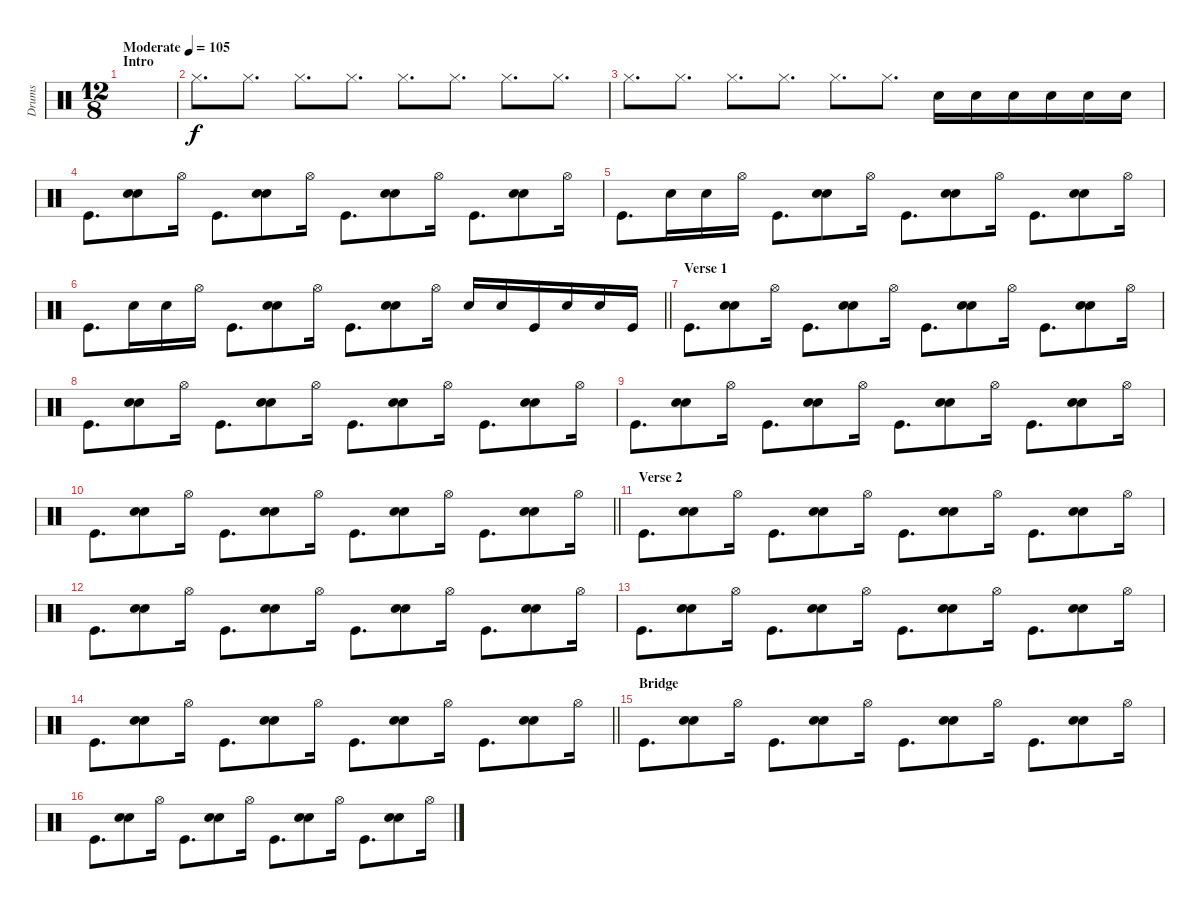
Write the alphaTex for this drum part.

\track ("Drums" "Drums") {instrument percussion}
\staff {score}
\articulation defaults
\ts (12 8)
\section ("" "Intro")
\tempo (105 "Moderate")
\clef neutral
\ks c
|
"Hi-Hat (closed)".8{d} "Hi-Hat (closed)".8{d} "Hi-Hat (closed)".8{d} "Hi-Hat (closed)".8{d} "Hi-Hat (closed)".8{d} "Hi-Hat (closed)".8{d} "Hi-Hat (closed)".8{d} "Hi-Hat (closed)".8{d} |
"Hi-Hat (closed)".8{d} "Hi-Hat (closed)".8{d} "Hi-Hat (closed)".8{d} "Hi-Hat (closed)".8{d} "Hi-Hat (closed)".8{d} "Hi-Hat (closed)".8{d} "Snare (hit) 2".16 "Snare (hit) 2".16 "Snare (hit) 2".16 "Snare (hit) 2".16 "Snare (hit) 2".16 "Snare (hit) 2".16 |
"Kick (hit)".8{d} ("Hand Clap (hit)" "Electric Snare (hit)").8 "Hi-Hat (open)".16 "Kick (hit)".8{d} ("Hand Clap (hit)" "Electric Snare (hit)").8 "Hi-Hat (open)".16 "Kick (hit)".8{d} ("Hand Clap (hit)" "Electric Snare (hit)").8 "Hi-Hat (open)".16 "Kick (hit)".8{d} ("Hand Clap (hit)" "Electric Snare (hit)").8 "Hi-Hat (open)".16 |
"Kick (hit)".8{d} "Electric Snare (hit)".16 "Electric Snare (hit)".16 "Hi-Hat (open)".16 "Kick (hit)".8{d} ("Hand Clap (hit)" "Electric Snare (hit)").8 "Hi-Hat (open)".16 "Kick (hit)".8{d} ("Hand Clap (hit)" "Electric Snare (hit)").8 "Hi-Hat (open)".16 "Kick (hit)".8{d} ("Hand Clap (hit)" "Electric Snare (hit)").8 "Hi-Hat (open)".16 |
\barLineRight lightlight "Kick (hit)".8{d} "Electric Snare (hit)".16 "Electric Snare (hit)".16 "Hi-Hat (open)".16 "Kick (hit)".8{d}
("Hand Clap (hit)" "Electric Snare (hit)").8 "Hi-Hat (open)".16 "Kick (hit)".8{d} ("Hand Clap (hit)" "Electric Snare (hit)").8 "Hi-Hat (open)".16 "Electric Snare (hit)".16 "Electric Snare (hit)".16 "Kick (hit)".16 "Electric Snare (hit)".16 "Electric Snare (hit)".16 "Kick (hit)".16 |
\section ("" "Verse 1")
"Kick (hit)".8{d} ("Hand Clap (hit)" "Electric Snare (hit)").8 "Hi-Hat (open)".16 "Kick (hit)".8{d} ("Hand Clap (hit)" "Electric Snare (hit)").8 "Hi-Hat (open)".16 "Kick (hit)".8{d} ("Hand Clap (hit)" "Electric Snare (hit)").8 "Hi-Hat (open)".16 "Kick (hit)".8{d} ("Hand Clap (hit)" "Electric Snare (hit)").8 "Hi-Hat (open)".16 |
"Kick (hit)".8{d} ("Hand Clap (hit)" "Electric Snare (hit)").8 "Hi-Hat (open)".16 "Kick (hit)".8{d} ("Hand Clap (hit)" "Electric Snare (hit)").8 "Hi-Hat (open)".16 "Kick (hit)".8{d} ("Hand Clap (hit)" "Electric Snare (hit)").8 "Hi-Hat (open)".16 "Kick (hit)".8{d} ("Hand Clap (hit)" "Electric Snare (hit)").8 "Hi-Hat (open)".16 |
"Kick (hit)".8{d} ("Hand Clap (hit)" "Electric Snare (hit)").8 "Hi-Hat (open)".16 "Kick (hit)".8{d} ("Hand Clap (hit)" "Electric Snare (hit)").8 "Hi-Hat (open)".16 "Kick (hit)".8{d} ("Hand Clap (hit)" "Electric Snare (hit)").8 "Hi-Hat (open)".16 "Kick (hit)".8{d} ("Hand Clap (hit)" "Electric Snare (hit)").8 "Hi-Hat (open)".16 |
\barLineRight lightlight "Kick (hit)".8{d}
("Hand Clap (hit)" "Electric Snare (hit)").8 "Hi-Hat (open)".16 "Kick (hit)".8{d} ("Hand Clap (hit)" "Electric Snare (hit)").8 "Hi-Hat (open)".16 "Kick (hit)".8{d} ("Hand Clap (hit)" "Electric Snare (hit)").8 "Hi-Hat (open)".16 "Kick (hit)".8{d} ("Hand Clap (hit)" "Electric Snare (hit)").8 "Hi-Hat (open)".16 |
\section ("" "Verse 2")
"Kick (hit)".8{d} ("Hand Clap (hit)" "Electric Snare (hit)").8 "Hi-Hat (open)".16 "Kick (hit)".8{d} ("Hand Clap (hit)" "Electric Snare (hit)").8 "Hi-Hat (open)".16 "Kick (hit)".8{d} ("Hand Clap (hit)" "Electric Snare (hit)").8 "Hi-Hat (open)".16 "Kick (hit)".8{d} ("Hand Clap (hit)" "Electric Snare (hit)").8 "Hi-Hat (open)".16 |
"Kick (hit)".8{d} ("Hand Clap (hit)" "Electric Snare (hit)").8 "Hi-Hat (open)".16 "Kick (hit)".8{d} ("Hand Clap (hit)" "Electric Snare (hit)").8 "Hi-Hat (open)".16 "Kick (hit)".8{d} ("Hand Clap (hit)" "Electric Snare (hit)").8 "Hi-Hat (open)".16 "Kick (hit)".8{d} ("Hand Clap (hit)" "Electric Snare (hit)").8 "Hi-Hat (open)".16 |
"Kick (hit)".8{d} ("Hand Clap (hit)" "Electric Snare (hit)").8 "Hi-Hat (open)".16 "Kick (hit)".8{d} ("Hand Clap (hit)" "Electric Snare (hit)").8 "Hi-Hat (open)".16 "Kick (hit)".8{d} ("Hand Clap (hit)" "Electric Snare (hit)").8 "Hi-Hat (open)".16 "Kick (hit)".8{d} ("Hand Clap (hit)" "Electric Snare (hit)").8 "Hi-Hat (open)".16 |
\barLineRight lightlight "Kick (hit)".8{d}
("Hand Clap (hit)" "Electric Snare (hit)").8 "Hi-Hat (open)".16 "Kick (hit)".8{d} ("Hand Clap (hit)" "Electric Snare (hit)").8 "Hi-Hat (open)".16 "Kick (hit)".8{d} ("Hand Clap (hit)" "Electric Snare (hit)").8 "Hi-Hat (open)".16 "Kick (hit)".8{d} ("Hand Clap (hit)" "Electric Snare (hit)").8 "Hi-Hat (open)".16 |
\section ("" "Bridge")
"Kick (hit)".8{d} ("Hand Clap (hit)" "Electric Snare (hit)").8 "Hi-Hat (open)".16 "Kick (hit)".8{d} ("Hand Clap (hit)" "Electric Snare (hit)").8 "Hi-Hat (open)".16 "Kick (hit)".8{d} ("Hand Clap (hit)" "Electric Snare (hit)").8 "Hi-Hat (open)".16 "Kick (hit)".8{d} ("Hand Clap (hit)" "Electric Snare (hit)").8 "Hi-Hat (open)".16 |
"Kick (hit)".8{d} ("Hand Clap (hit)" "Electric Snare (hit)").8 "Hi-Hat (open)".16 "Kick (hit)".8{d} ("Hand Clap (hit)" "Electric Snare (hit)").8 "Hi-Hat (open)".16 "Kick (hit)".8{d} ("Hand Clap (hit)" "Electric Snare (hit)").8 "Hi-Hat (open)".16 "Kick (hit)".8{d} ("Hand Clap (hit)" "Electric Snare (hit)").8 "Hi-Hat (open)".16
